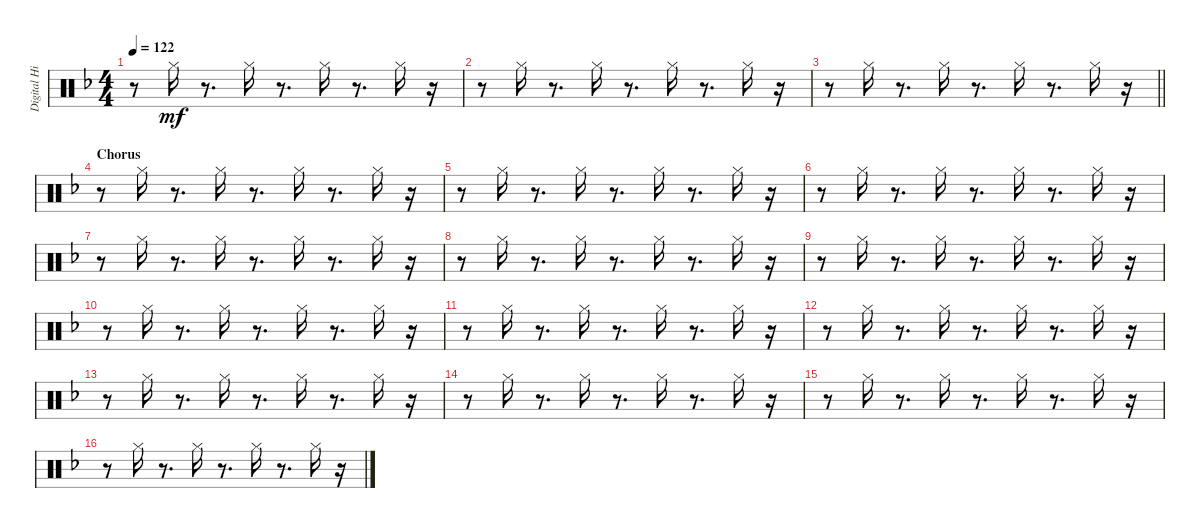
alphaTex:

\track ("Digital Hi-Hat (Stephen Morris)" "Digital Hi") {instrument percussion}
\staff {score}
\articulation defaults
\ts (4 4)
\tempo 122
\clef neutral
\ks f
r.8{dy mf} "Hi-Hat (closed)".16 r.8{d} "Hi-Hat (closed)".16 r.8{d} "Hi-Hat (closed)".16 r.8{d} "Hi-Hat (closed)".16 r.16 |
r.8 "Hi-Hat (closed)".16 r.8{d} "Hi-Hat (closed)".16 r.8{d} "Hi-Hat (closed)".16 r.8{d} "Hi-Hat (closed)".16 r.16 |
\barLineRight lightlight
r.8 "Hi-Hat (closed)".16 r.8{d} "Hi-Hat (closed)".16 r.8{d} "Hi-Hat (closed)".16 r.8{d} "Hi-Hat (closed)".16 r.16 |
\section ("" "Chorus")
r.8 "Hi-Hat (closed)".16 r.8{d} "Hi-Hat (closed)".16 r.8{d} "Hi-Hat (closed)".16 r.8{d} "Hi-Hat (closed)".16 r.16 |
r.8 "Hi-Hat (closed)".16 r.8{d} "Hi-Hat (closed)".16 r.8{d} "Hi-Hat (closed)".16 r.8{d} "Hi-Hat (closed)".16 r.16 |
r.8 "Hi-Hat (closed)".16 r.8{d} "Hi-Hat (closed)".16 r.8{d} "Hi-Hat (closed)".16 r.8{d} "Hi-Hat (closed)".16 r.16 |
r.8 "Hi-Hat (closed)".16 r.8{d} "Hi-Hat (closed)".16 r.8{d} "Hi-Hat (closed)".16 r.8{d} "Hi-Hat (closed)".16 r.16 |
r.8 "Hi-Hat (closed)".16 r.8{d} "Hi-Hat (closed)".16 r.8{d} "Hi-Hat (closed)".16 r.8{d} "Hi-Hat (closed)".16 r.16 |
r.8 "Hi-Hat (closed)".16 r.8{d} "Hi-Hat (closed)".16 r.8{d} "Hi-Hat (closed)".16 r.8{d} "Hi-Hat (closed)".16 r.16 |
r.8 "Hi-Hat (closed)".16 r.8{d} "Hi-Hat (closed)".16 r.8{d} "Hi-Hat (closed)".16 r.8{d} "Hi-Hat (closed)".16 r.16 |
r.8 "Hi-Hat (closed)".16 r.8{d} "Hi-Hat (closed)".16 r.8{d} "Hi-Hat (closed)".16 r.8{d} "Hi-Hat (closed)".16 r.16 |
r.8 "Hi-Hat (closed)".16 r.8{d} "Hi-Hat (closed)".16 r.8{d} "Hi-Hat (closed)".16 r.8{d} "Hi-Hat (closed)".16 r.16 |
r.8 "Hi-Hat (closed)".16 r.8{d} "Hi-Hat (closed)".16 r.8{d} "Hi-Hat (closed)".16 r.8{d} "Hi-Hat (closed)".16 r.16 |
r.8 "Hi-Hat (closed)".16 r.8{d} "Hi-Hat (closed)".16 r.8{d} "Hi-Hat (closed)".16 r.8{d} "Hi-Hat (closed)".16 r.16 |
r.8 "Hi-Hat (closed)".16 r.8{d} "Hi-Hat (closed)".16 r.8{d} "Hi-Hat (closed)".16 r.8{d} "Hi-Hat (closed)".16 r.16 |
r.8 "Hi-Hat (closed)".16 r.8{d} "Hi-Hat (closed)".16 r.8{d} "Hi-Hat (closed)".16 r.8{d} "Hi-Hat (closed)".16 r.16
